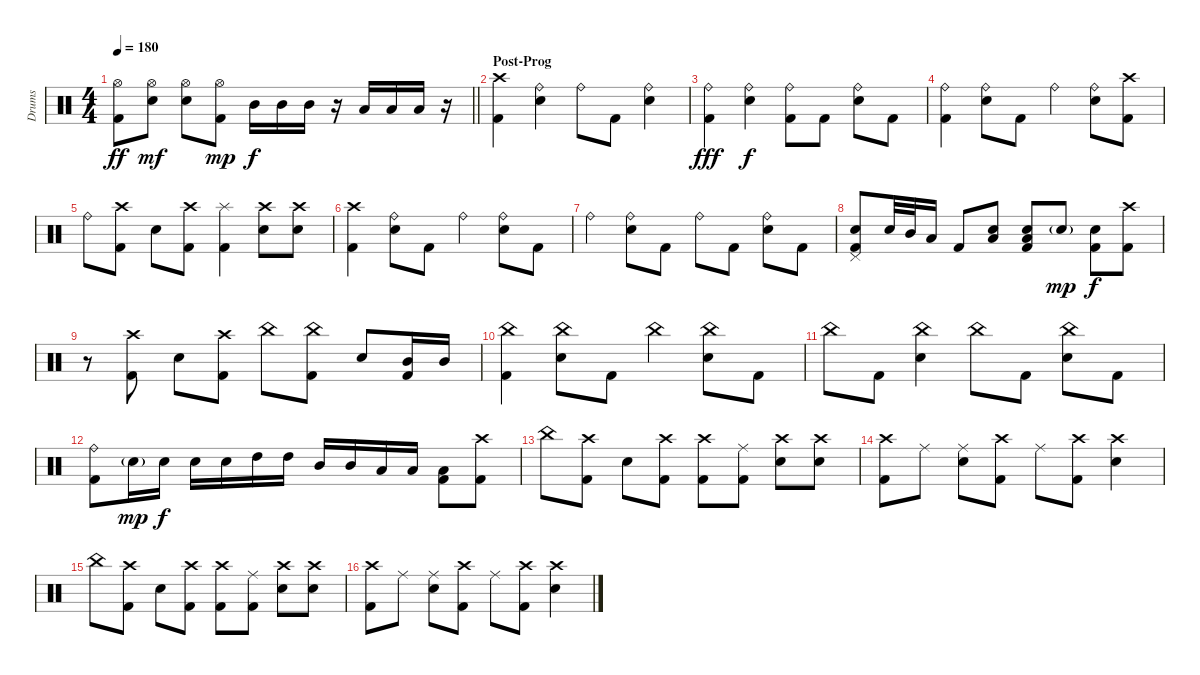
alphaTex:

\track ("Drums" "Drums") {instrument percussion}
\staff {score}
\articulation defaults
\ts (4 4)
\tempo 180
\clef neutral
\barLineRight lightlight
\ks c
("Hi-Hat (open)" "Kick (hit) 2").8{dy ff} ("Hi-Hat (open)" "Snare (hit) 2").8{dy mf} ("Hi-Hat (open)" "Snare (hit) 2").8 ("Hi-Hat (open)" "Kick (hit) 2").8{dy mp} "Mid Tom (hit)".16{dy f} "Mid Tom (hit)".16 "Mid Tom (hit)".16 r.16 "Low Tom (hit)".16 "Low Tom (hit)".16 "Low Tom (hit)".16 r.16 |
\section ("" "Post-Prog")
("Crash high (hit)" "Kick (hit) 2").4 ("Ride (bell)" "Snare (hit) 2").4 "Ride (bell)".8 "Kick (hit) 2".8 ("Ride (bell)" "Snare (hit) 2").4 |
("Ride (bell)" "Kick (hit) 2").4{dy fff} ("Ride (bell)" "Snare (hit) 2").4{dy f} ("Ride (bell)" "Kick (hit) 2").8 "Kick (hit) 2".8 ("Ride (bell)" "Snare (hit) 2").8 "Kick (hit) 2".8 |
("Ride (bell)" "Kick (hit) 2").4 ("Ride (bell)" "Snare (hit) 2").8 "Kick (hit) 2".8 "Ride (bell)".4 ("Ride (bell)" "Snare (hit) 2").8 ("Crash high (hit)" "Kick (hit) 2").8 |
"Ride (bell)".8 ("Crash high (hit)" "Kick (hit) 2").8 "Snare (hit) 2".8 ("Crash high (hit)" "Kick (hit) 2").8 ("Splash (hit)" "Kick (hit) 2").4 ("Crash high (hit)" "Snare (hit) 2").8 ("Crash high (hit)" "Snare (hit) 2").8 |
("Crash high (hit)" "Kick (hit) 2").4 ("Ride (bell)" "Snare (hit) 2").8 "Kick (hit) 2".8 "Ride (bell)".4 ("Ride (bell)" "Snare (hit) 2").8 "Kick (hit) 2".8 |
"Ride (bell)".4 ("Ride (bell)" "Snare (hit) 2").8 "Kick (hit) 2".8 "Ride (bell)".8 "Kick (hit) 2".8 ("Ride (bell)" "Snare (hit) 2").8 "Kick (hit) 2".8 |
("Pedal Hi-Hat (hit)" "Snare (hit) 2" "Kick (hit) 2").8 "Snare (hit) 2".32 "Mid Tom (hit)".32 "Low Tom (hit)".16 "Kick (hit) 2".8 ("Low Tom (hit)" "Snare (hit) 2").8 ("Low Tom (hit)" "Snare (hit) 2" "Kick (hit) 2").8 "Snare (hit) 2"{g}.8{dy mp} ("Snare (hit) 2" "Kick (hit) 2").8{dy f} ("Crash high (hit)" "Kick (hit) 2").8 |
r.8 ("Crash high (hit)" "Kick (hit) 2").8 "Snare (hit) 2".8 ("Crash high (hit)" "Kick (hit) 2").8 "China (hit)".8 ("China (hit)" "Kick (hit) 2").8 "Snare (hit) 2".8 ("Mid Tom (hit)" "Kick (hit) 2").16 "Mid Tom (hit)".16 |
("China (hit)" "Kick (hit) 2").4 ("China (hit)" "Snare (hit) 2").8 "Kick (hit) 2".8 "China (hit)".4 ("China (hit)" "Snare (hit) 2").8 "Kick (hit) 2".8 |
"China (hit)".8 "Kick (hit) 2".8 ("China (hit)" "Snare (hit) 2").4 "China (hit)".8 "Kick (hit) 2".8 ("China (hit)" "Snare (hit) 2").8 "Kick (hit) 2".8 |
("Ride (bell)" "Kick (hit) 2").8 "Snare (hit) 2"{g}.16{dy mp} "Snare (hit) 2".16{dy f} "Snare (hit) 2".16 "Snare (hit) 2".16 "High Tom (hit)".16 "High Tom (hit)".16 "Mid Tom (hit)".16 "Mid Tom (hit)".16 "Low Tom (hit)".16 "Low Tom (hit)".16 ("Low Tom (hit)" "Kick (hit) 2").8 ("Crash high (hit)" "Kick (hit) 2").8 |
"China (hit)".8 ("Crash high (hit)" "Kick (hit) 2").8 "Snare (hit) 2".8 ("Crash high (hit)" "Kick (hit) 2").8 ("Crash high (hit)" "Kick (hit) 2").8 ("Ride (middle)" "Kick (hit) 2").8 ("Crash high (hit)" "Snare (hit) 2").8 ("Crash high (hit)" "Snare (hit) 2").8 |
("Crash high (hit)" "Kick (hit) 2").8 "Ride (middle)".8 ("Ride (middle)" "Snare (hit) 2").8 ("Crash high (hit)" "Kick (hit) 2").8 "Ride (middle)".8 ("Crash high (hit)" "Kick (hit) 2").8 ("Crash high (hit)" "Snare (hit) 2").4 |
"China (hit)".8 ("Crash high (hit)" "Kick (hit) 2").8 "Snare (hit) 2".8 ("Crash high (hit)" "Kick (hit) 2").8 ("Crash high (hit)" "Kick (hit) 2").8 ("Ride (middle)" "Kick (hit) 2").8 ("Crash high (hit)" "Snare (hit) 2").8 ("Crash high (hit)" "Snare (hit) 2").8 |
("Crash high (hit)" "Kick (hit) 2").8 "Ride (middle)".8 ("Ride (middle)" "Snare (hit) 2").8 ("Crash high (hit)" "Kick (hit) 2").8 "Ride (middle)".8 ("Crash high (hit)" "Kick (hit) 2").8 ("Crash high (hit)" "Snare (hit) 2").4
